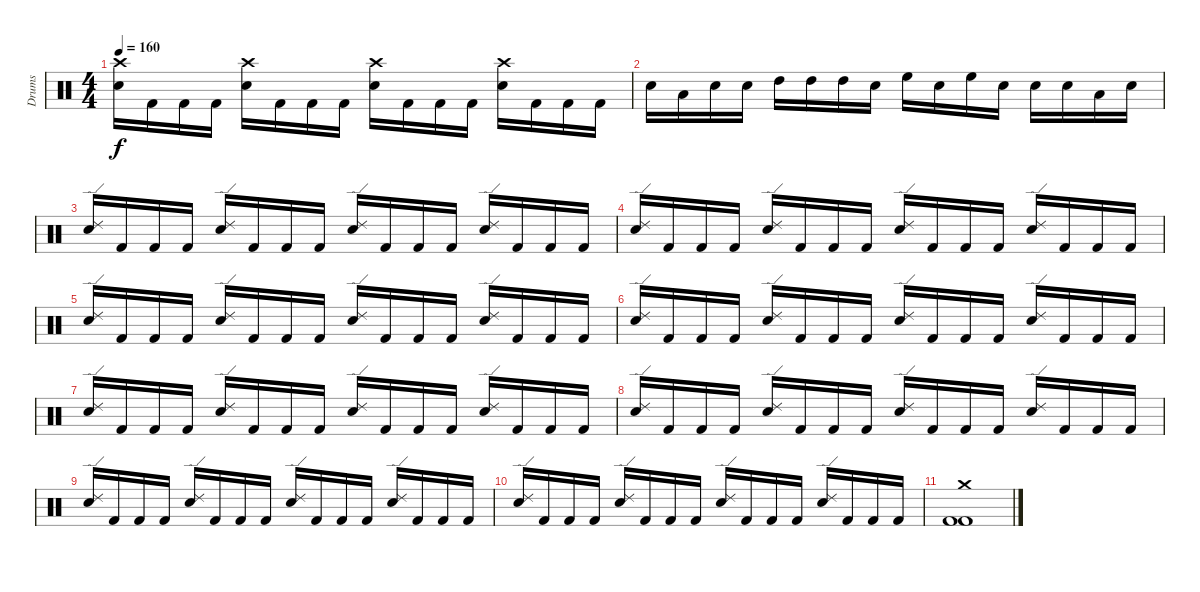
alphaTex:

\track ("Drums" "Drums") {instrument percussion}
\staff {score}
\articulation defaults
\ts (4 4)
\tempo 160
\clef neutral
\ks c
("Crash high (hit)" "Electric Snare (hit)").16{dy f} "Kick (hit) 2".16 "Kick (hit) 2".16 "Kick (hit) 2".16 ("Crash high (hit)" "Electric Snare (hit)").16 "Kick (hit) 2".16 "Kick (hit) 2".16 "Kick (hit) 2".16 ("Crash high (hit)" "Electric Snare (hit)").16 "Kick (hit) 2".16 "Kick (hit) 2".16 "Kick (hit) 2".16 ("Crash high (hit)" "Electric Snare (hit)").16 "Kick (hit) 2".16 "Kick (hit) 2".16 "Kick (hit) 2".16 |
"Electric Snare (hit)".16 "Low Tom (hit)".16 "Electric Snare (hit)".16 "Electric Snare (hit)".16 "High Tom (hit)".16 "High Tom (hit)".16 "High Tom (hit)".16 "Electric Snare (hit)".16 "High Floor Tom (hit)".16 "Electric Snare (hit)".16 "High Floor Tom (hit)".16 "Electric Snare (hit)".16 "Electric Snare (hit)".16 "Electric Snare (hit)".16 "Low Tom (hit)".16 "Electric Snare (hit)".16 |
("Ride (edge) 2" "Electric Snare (hit)").16 "Kick (hit) 2".16 "Kick (hit) 2".16 "Kick (hit) 2".16 ("Ride (edge) 2" "Electric Snare (hit)").16 "Kick (hit) 2".16 "Kick (hit) 2".16 "Kick (hit) 2".16 ("Electric Snare (hit)" "Ride (edge) 2").16 "Kick (hit) 2".16 "Kick (hit) 2".16 "Kick (hit) 2".16 ("Ride (edge) 2" "Electric Snare (hit)").16 "Kick (hit) 2".16 "Kick (hit) 2".16 "Kick (hit) 2".16 |
("Ride (edge) 2" "Electric Snare (hit)").16 "Kick (hit) 2".16 "Kick (hit) 2".16 "Kick (hit) 2".16 ("Ride (edge) 2" "Electric Snare (hit)").16 "Kick (hit) 2".16 "Kick (hit) 2".16 "Kick (hit) 2".16 ("Electric Snare (hit)" "Ride (edge) 2").16 "Kick (hit) 2".16 "Kick (hit) 2".16 "Kick (hit) 2".16 ("Ride (edge) 2" "Electric Snare (hit)").16 "Kick (hit) 2".16 "Kick (hit) 2".16 "Kick (hit) 2".16 |
("Ride (edge) 2" "Electric Snare (hit)").16 "Kick (hit) 2".16 "Kick (hit) 2".16 "Kick (hit) 2".16 ("Ride (edge) 2" "Electric Snare (hit)").16 "Kick (hit) 2".16 "Kick (hit) 2".16 "Kick (hit) 2".16 ("Electric Snare (hit)" "Ride (edge) 2").16 "Kick (hit) 2".16 "Kick (hit) 2".16 "Kick (hit) 2".16 ("Ride (edge) 2" "Electric Snare (hit)").16 "Kick (hit) 2".16 "Kick (hit) 2".16 "Kick (hit) 2".16 |
("Ride (edge) 2" "Electric Snare (hit)").16 "Kick (hit) 2".16 "Kick (hit) 2".16 "Kick (hit) 2".16 ("Ride (edge) 2" "Electric Snare (hit)").16 "Kick (hit) 2".16 "Kick (hit) 2".16 "Kick (hit) 2".16 ("Electric Snare (hit)" "Ride (edge) 2").16 "Kick (hit) 2".16 "Kick (hit) 2".16 "Kick (hit) 2".16 ("Ride (edge) 2" "Electric Snare (hit)").16 "Kick (hit) 2".16 "Kick (hit) 2".16 "Kick (hit) 2".16 |
("Ride (edge) 2" "Electric Snare (hit)").16 "Kick (hit) 2".16 "Kick (hit) 2".16 "Kick (hit) 2".16 ("Ride (edge) 2" "Electric Snare (hit)").16 "Kick (hit) 2".16 "Kick (hit) 2".16 "Kick (hit) 2".16 ("Electric Snare (hit)" "Ride (edge) 2").16 "Kick (hit) 2".16 "Kick (hit) 2".16 "Kick (hit) 2".16 ("Ride (edge) 2" "Electric Snare (hit)").16 "Kick (hit) 2".16 "Kick (hit) 2".16 "Kick (hit) 2".16 |
("Ride (edge) 2" "Electric Snare (hit)").16 "Kick (hit) 2".16 "Kick (hit) 2".16 "Kick (hit) 2".16 ("Ride (edge) 2" "Electric Snare (hit)").16 "Kick (hit) 2".16 "Kick (hit) 2".16 "Kick (hit) 2".16 ("Electric Snare (hit)" "Ride (edge) 2").16 "Kick (hit) 2".16 "Kick (hit) 2".16 "Kick (hit) 2".16 ("Ride (edge) 2" "Electric Snare (hit)").16 "Kick (hit) 2".16 "Kick (hit) 2".16 "Kick (hit) 2".16 |
("Ride (edge) 2" "Electric Snare (hit)").16 "Kick (hit) 2".16 "Kick (hit) 2".16 "Kick (hit) 2".16 ("Ride (edge) 2" "Electric Snare (hit)").16 "Kick (hit) 2".16 "Kick (hit) 2".16 "Kick (hit) 2".16 ("Electric Snare (hit)" "Ride (edge) 2").16 "Kick (hit) 2".16 "Kick (hit) 2".16 "Kick (hit) 2".16 ("Ride (edge) 2" "Electric Snare (hit)").16 "Kick (hit) 2".16 "Kick (hit) 2".16 "Kick (hit) 2".16 |
("Ride (edge) 2" "Electric Snare (hit)").16 "Kick (hit) 2".16 "Kick (hit) 2".16 "Kick (hit) 2".16 ("Ride (edge) 2" "Electric Snare (hit)").16 "Kick (hit) 2".16 "Kick (hit) 2".16 "Kick (hit) 2".16 ("Electric Snare (hit)" "Ride (edge) 2").16 "Kick (hit) 2".16 "Kick (hit) 2".16 "Kick (hit) 2".16 ("Ride (edge) 2" "Electric Snare (hit)").16 "Kick (hit) 2".16 "Kick (hit) 2".16 "Kick (hit) 2".16 |
("Crash medium (hit)" "Kick (hit) 2" "Kick (hit) 2").1
